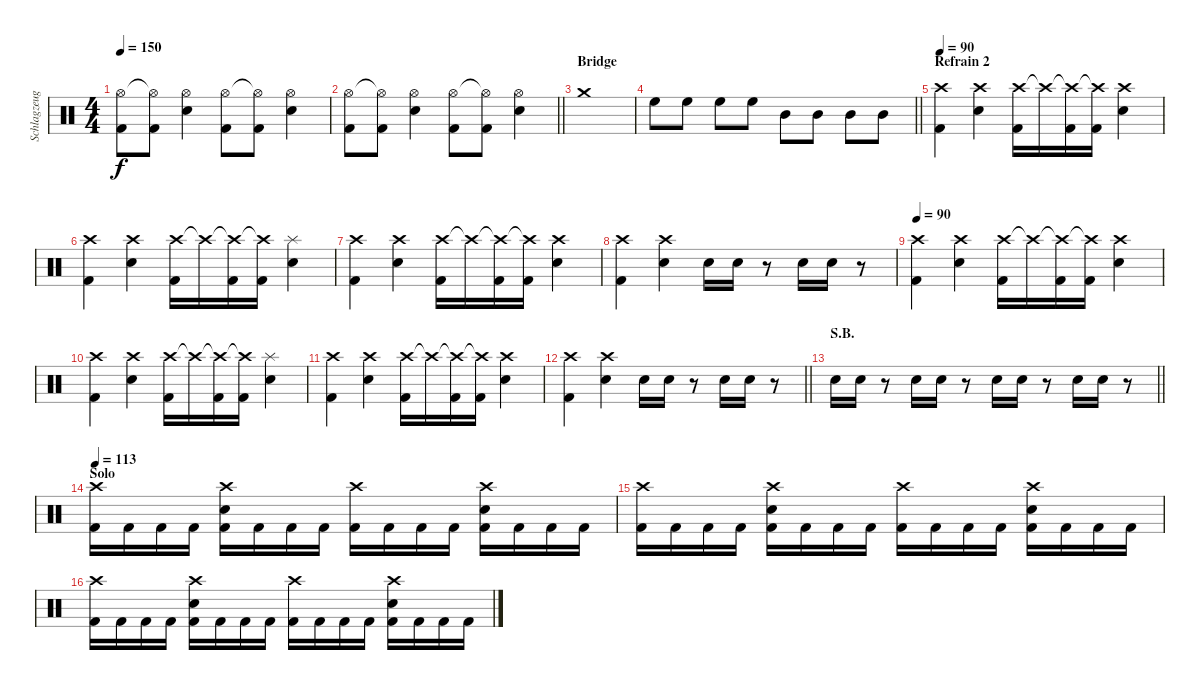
\track ("Schlagzeug" "Schlagzeug") {instrument percussion}
\staff {score}
\articulation defaults
\ts (4 4)
\tempo 150
\clef neutral
\ks c
("Hi-Hat (open)" "Kick (hit) 2").8{dy f} ("Hi-Hat (open)"{t} "Kick (hit) 2").8 ("Hi-Hat (open)" "Snare (hit) 2").4 ("Hi-Hat (open)" "Kick (hit) 2").8 ("Hi-Hat (open)"{t} "Kick (hit) 2").8 ("Hi-Hat (open)" "Snare (hit) 2").4 |
\barLineRight lightlight
("Hi-Hat (open)" "Kick (hit) 2").8 ("Hi-Hat (open)"{t} "Kick (hit) 2").8 ("Hi-Hat (open)" "Snare (hit) 2").4 ("Hi-Hat (open)" "Kick (hit) 2").8 ("Hi-Hat (open)"{t} "Kick (hit) 2").8 ("Hi-Hat (open)" "Snare (hit) 2").4 |
\section ("" "Bridge")
"Crash medium (hit)".1 |
\barLineRight lightlight "High Floor Tom (hit)".8 "High Floor Tom (hit)".8 "High Floor Tom (hit)".8 "High Floor Tom (hit)".8 "Mid Tom (hit)".8 "Mid Tom (hit)".8 "Mid Tom (hit)".8 "Mid Tom (hit)".8
|
\section ("" "Refrain 2")
\tempo 90
("Crash high (hit)" "Kick (hit) 2").4 ("Crash high (hit)" "Snare (hit) 2").4 ("Crash high (hit)" "Kick (hit) 2").16 "Crash high (hit)"{t}.16 ("Crash high (hit)"{t} "Kick (hit) 2").16 ("Crash high (hit)"{t} "Kick (hit) 2").16 ("Crash high (hit)" "Snare (hit) 2").4 |
("Crash high (hit)" "Kick (hit) 2").4 ("Crash high (hit)" "Snare (hit) 2").4 ("Crash high (hit)" "Kick (hit) 2").16 "Crash high (hit)"{t}.16 ("Crash high (hit)"{t} "Kick (hit) 2").16 ("Crash high (hit)"{t} "Kick (hit) 2").16 ("Splash (hit)" "Snare (hit) 2").4 |
("Crash high (hit)" "Kick (hit) 2").4 ("Crash high (hit)" "Snare (hit) 2").4 ("Crash high (hit)" "Kick (hit) 2").16 "Crash high (hit)"{t}.16 ("Crash high (hit)"{t} "Kick (hit) 2").16 ("Crash high (hit)"{t} "Kick (hit) 2").16 ("Crash high (hit)" "Snare (hit) 2").4 |
("Crash high (hit)" "Kick (hit) 2").4 ("Crash high (hit)" "Snare (hit) 2").4 "Snare (hit) 2".16 "Snare (hit) 2".16 r.8 "Snare (hit) 2".16 "Snare (hit) 2".16 r.8 |
\tempo 90
("Crash high (hit)" "Kick (hit) 2").4 ("Crash high (hit)" "Snare (hit) 2").4 ("Crash high (hit)" "Kick (hit) 2").16 "Crash high (hit)"{t}.16 ("Crash high (hit)"{t} "Kick (hit) 2").16 ("Crash high (hit)"{t} "Kick (hit) 2").16 ("Crash high (hit)" "Snare (hit) 2").4 |
("Crash high (hit)" "Kick (hit) 2").4 ("Crash high (hit)" "Snare (hit) 2").4 ("Crash high (hit)" "Kick (hit) 2").16 "Crash high (hit)"{t}.16 ("Crash high (hit)"{t} "Kick (hit) 2").16 ("Crash high (hit)"{t} "Kick (hit) 2").16 ("Splash (hit)" "Snare (hit) 2").4 |
("Crash high (hit)" "Kick (hit) 2").4 ("Crash high (hit)" "Snare (hit) 2").4 ("Crash high (hit)" "Kick (hit) 2").16 "Crash high (hit)"{t}.16 ("Crash high (hit)"{t} "Kick (hit) 2").16 ("Crash high (hit)"{t} "Kick (hit) 2").16 ("Crash high (hit)" "Snare (hit) 2").4 |
\barLineRight lightlight
("Crash high (hit)" "Kick (hit) 2").4 ("Crash high (hit)" "Snare (hit) 2").4 "Snare (hit) 2".16 "Snare (hit) 2".16 r.8 "Snare (hit) 2".16 "Snare (hit) 2".16 r.8 |
\section ("" "S.B.")
\barLineRight lightlight "Snare (hit) 2".16 "Snare (hit) 2".16
r.8 "Snare (hit) 2".16 "Snare (hit) 2".16 r.8 "Snare (hit) 2".16 "Snare (hit) 2".16 r.8 "Snare (hit) 2".16 "Snare (hit) 2".16 r.8 |
\section ("" "Solo")
\tempo 113
("Crash high (hit)" "Kick (hit) 2").16 "Kick (hit) 2".16 "Kick (hit) 2".16 "Kick (hit) 2".16 ("Crash high (hit)" "Snare (hit) 2" "Kick (hit) 2").16 "Kick (hit) 2".16 "Kick (hit) 2".16 "Kick (hit) 2".16 ("Crash high (hit)" "Kick (hit) 2").16 "Kick (hit) 2".16 "Kick (hit) 2".16 "Kick (hit) 2".16 ("Crash high (hit)" "Snare (hit) 2" "Kick (hit) 2").16 "Kick (hit) 2".16 "Kick (hit) 2".16 "Kick (hit) 2".16 |
("Crash high (hit)" "Kick (hit) 2").16 "Kick (hit) 2".16 "Kick (hit) 2".16 "Kick (hit) 2".16 ("Crash high (hit)" "Snare (hit) 2" "Kick (hit) 2").16 "Kick (hit) 2".16 "Kick (hit) 2".16 "Kick (hit) 2".16 ("Crash high (hit)" "Kick (hit) 2").16 "Kick (hit) 2".16 "Kick (hit) 2".16 "Kick (hit) 2".16 ("Crash high (hit)" "Snare (hit) 2" "Kick (hit) 2").16 "Kick (hit) 2".16 "Kick (hit) 2".16 "Kick (hit) 2".16 |
("Crash high (hit)" "Kick (hit) 2").16 "Kick (hit) 2".16 "Kick (hit) 2".16 "Kick (hit) 2".16 ("Crash high (hit)" "Snare (hit) 2" "Kick (hit) 2").16 "Kick (hit) 2".16 "Kick (hit) 2".16 "Kick (hit) 2".16 ("Crash high (hit)" "Kick (hit) 2").16 "Kick (hit) 2".16 "Kick (hit) 2".16 "Kick (hit) 2".16 ("Crash high (hit)" "Snare (hit) 2" "Kick (hit) 2").16 "Kick (hit) 2".16 "Kick (hit) 2".16 "Kick (hit) 2".16
